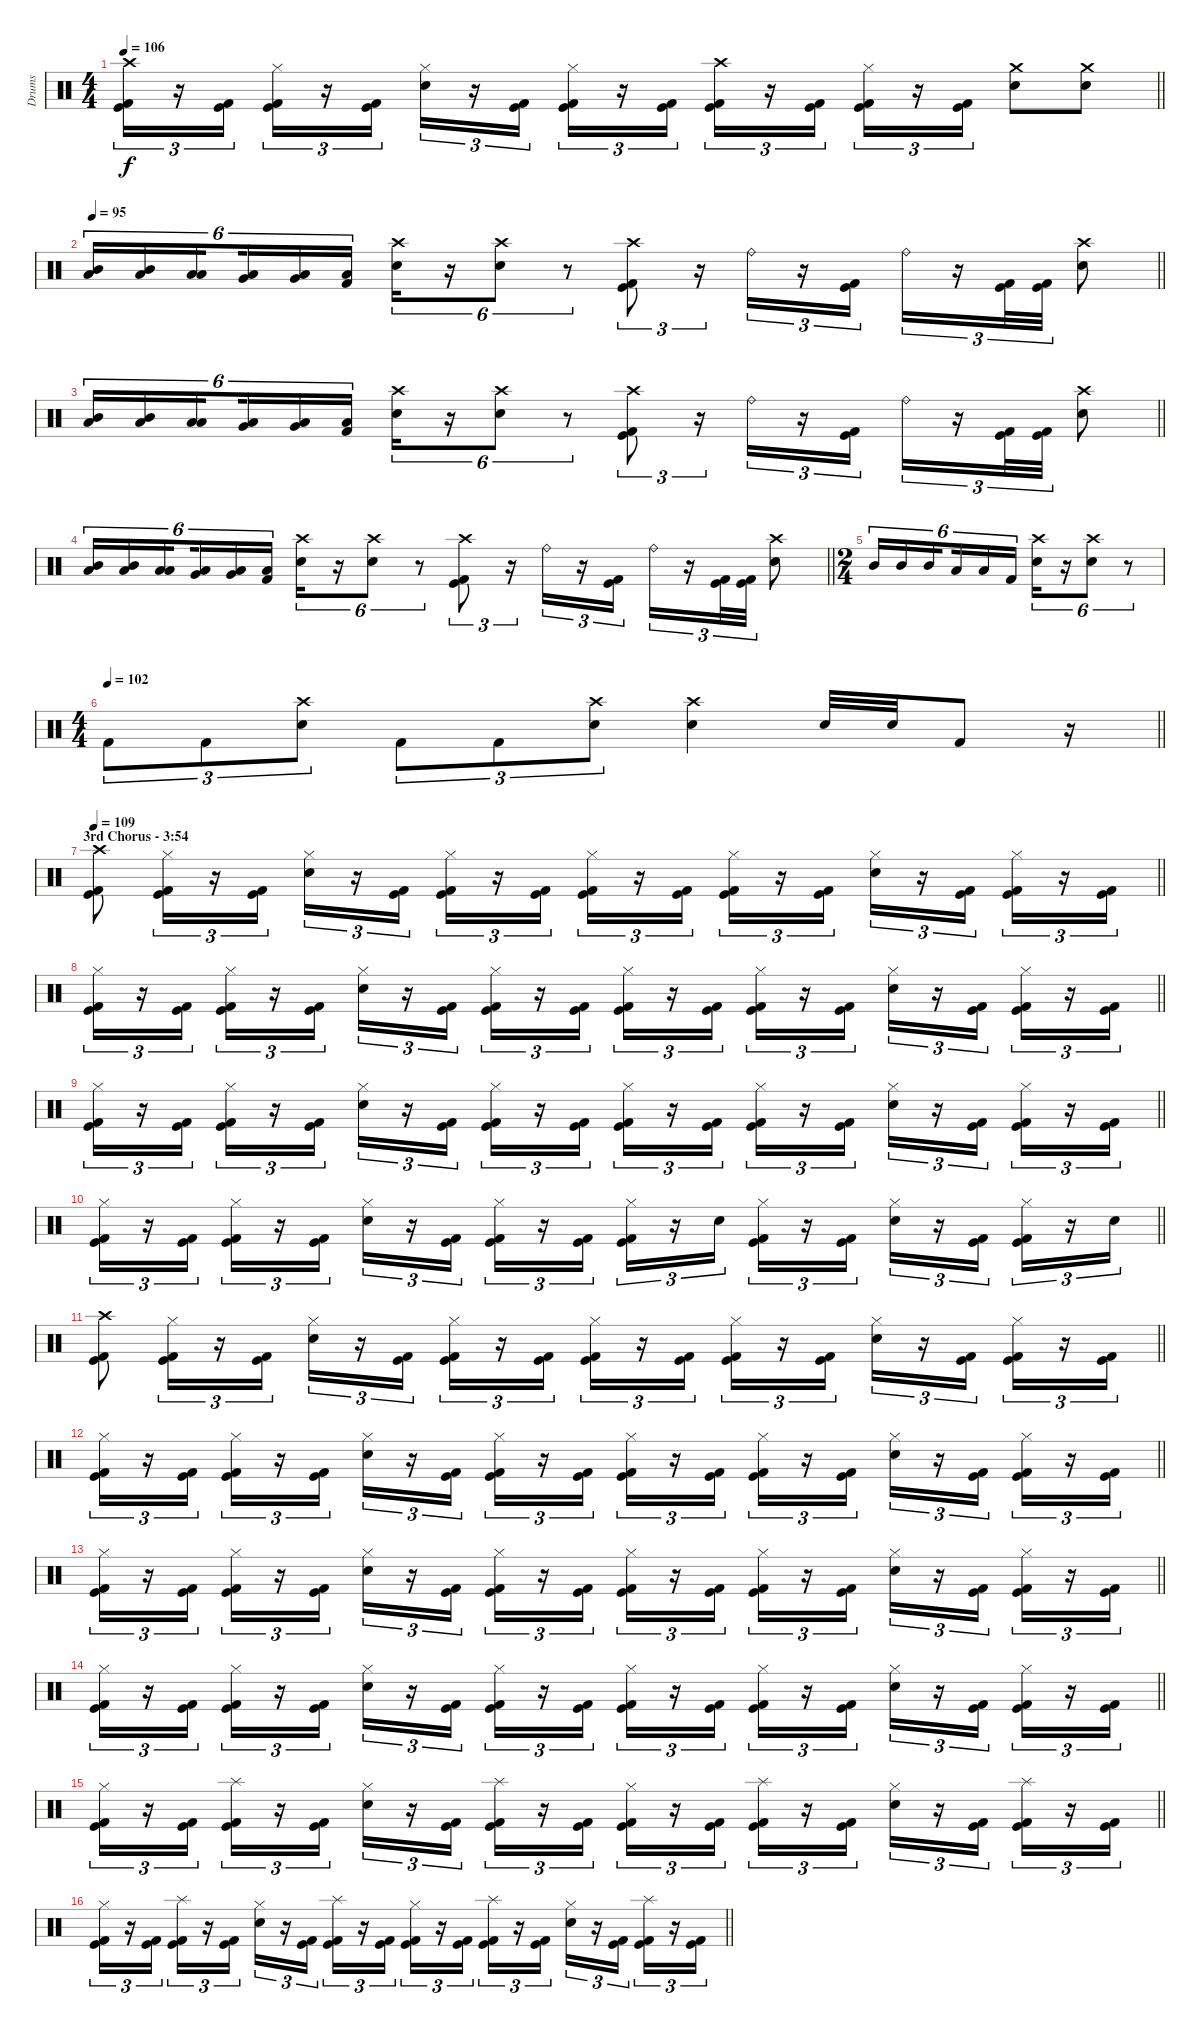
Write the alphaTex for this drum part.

\track ("Drums" "Drums") {instrument percussion}
\staff {score}
\articulation defaults
\ts (4 4)
\tempo 106
\clef neutral
\barLineRight lightlight
\ks c
("Crash high (hit)" "Kick (hit)" "Kick (hit) 2").16{tu (3 2) dy f} r.16{tu (3 2)} ("Kick (hit)" "Kick (hit) 2").16{tu (3 2)} ("Hi-Hat (closed)" "Kick (hit)" "Kick (hit) 2").16{tu (3 2)} r.16{tu (3 2)} ("Kick (hit)" "Kick (hit) 2").16{tu (3 2)} ("Hi-Hat (closed)" "Electric Snare (hit)").16{tu (3 2)} r.16{tu (3 2)} ("Kick (hit)" "Kick (hit) 2").16{tu (3 2)} ("Hi-Hat (closed)" "Kick (hit)" "Kick (hit) 2").16{tu (3 2)} r.16{tu (3 2)} ("Kick (hit)" "Kick (hit) 2").16{tu (3 2)} ("Crash high (hit)" "Kick (hit)" "Kick (hit) 2").16{tu (3 2)} r.16{tu (3 2)} ("Kick (hit)" "Kick (hit) 2").16{tu (3 2)} ("Hi-Hat (closed)" "Kick (hit)" "Kick (hit) 2").16{tu (3 2)} r.16{tu (3 2)} ("Kick (hit)" "Kick (hit) 2").16{tu (3 2)} ("Crash medium (hit)" "Electric Snare (hit)").8 ("Crash medium (hit)" "Electric Snare (hit)").8 |
\tempo 95
\barLineRight lightlight
("Mid Tom (hit)" "Low Tom (hit)").16{tu (6 4)} ("Mid Tom (hit)" "Low Tom (hit)").16{tu (6 4)} ("Low Tom (hit)" "Low Tom (hit)").16{tu (6 4) beam splitsecondary} ("Very Low Tom (hit)" "Low Tom (hit)").16{tu (6 4)} ("Very Low Tom (hit)" "Low Tom (hit)").16{tu (6 4)} ("Low Floor Tom (hit)" "Kick (hit) 2").16{tu (6 4)} ("Crash high (hit)" "Electric Snare (hit)").16{tu (6 4)} r.16{tu (6 4)} ("Crash high (hit)" "Electric Snare (hit)").8{tu (6 4)} r.8{tu (6 4)} ("Crash high (hit)" "Kick (hit)" "Kick (hit) 2").8{tu (3 2)} r.16{tu (3 2)} "Ride (bell)".16{tu (3 2)} r.16{tu (3 2)} ("Kick (hit)" "Kick (hit) 2").16{tu (3 2)} "Ride (bell)".16{tu (3 2)} r.16{tu (3 2)} ("Kick (hit)" "Kick (hit) 2").32{tu (3 2)} ("Kick (hit)" "Kick (hit) 2").32{tu (3 2)} ("Crash high (hit)" "Electric Snare (hit)").8 |
\barLineRight lightlight
("Mid Tom (hit)" "Low Tom (hit)").16{tu (6 4)} ("Mid Tom (hit)" "Low Tom (hit)").16{tu (6 4)} ("Low Tom (hit)" "Low Tom (hit)").16{tu (6 4) beam splitsecondary} ("Very Low Tom (hit)" "Low Tom (hit)").16{tu (6 4)} ("Very Low Tom (hit)" "Low Tom (hit)").16{tu (6 4)} ("Low Floor Tom (hit)" "Kick (hit) 2").16{tu (6 4)} ("Crash high (hit)" "Electric Snare (hit)").16{tu (6 4)} r.16{tu (6 4)} ("Crash high (hit)" "Electric Snare (hit)").8{tu (6 4)} r.8{tu (6 4)} ("Crash high (hit)" "Kick (hit)" "Kick (hit) 2").8{tu (3 2)} r.16{tu (3 2)} "Ride (bell)".16{tu (3 2)} r.16{tu (3 2)} ("Kick (hit)" "Kick (hit) 2").16{tu (3 2)} "Ride (bell)".16{tu (3 2)} r.16{tu (3 2)} ("Kick (hit)" "Kick (hit) 2").32{tu (3 2)} ("Kick (hit)" "Kick (hit) 2").32{tu (3 2)} ("Crash high (hit)" "Electric Snare (hit)").8 |
\barLineRight lightlight
("Mid Tom (hit)" "Low Tom (hit)").16{tu (6 4)} ("Mid Tom (hit)" "Low Tom (hit)").16{tu (6 4)} ("Low Tom (hit)" "Low Tom (hit)").16{tu (6 4) beam splitsecondary} ("Very Low Tom (hit)" "Low Tom (hit)").16{tu (6 4)} ("Very Low Tom (hit)" "Low Tom (hit)").16{tu (6 4)} ("Low Floor Tom (hit)" "Kick (hit) 2").16{tu (6 4)} ("Crash high (hit)" "Electric Snare (hit)").16{tu (6 4)} r.16{tu (6 4)} ("Crash high (hit)" "Electric Snare (hit)").8{tu (6 4)} r.8{tu (6 4)} ("Crash high (hit)" "Kick (hit)" "Kick (hit) 2").8{tu (3 2)} r.16{tu (3 2)} "Ride (bell)".16{tu (3 2)} r.16{tu (3 2)} ("Kick (hit)" "Kick (hit) 2").16{tu (3 2)} "Ride (bell)".16{tu (3 2)} r.16{tu (3 2)} ("Kick (hit)" "Kick (hit) 2").32{tu (3 2)} ("Kick (hit)" "Kick (hit) 2").32{tu (3 2)} ("Crash high (hit)" "Electric Snare (hit)").8 |
\ts (2 4)
"Mid Tom (hit)".16{tu (6 4)} "Mid Tom (hit)".16{tu (6 4)} "Mid Tom (hit)".16{tu (6 4) beam splitsecondary} "Low Tom (hit)".16{tu (6 4)} "Low Tom (hit)".16{tu (6 4)} "Kick (hit) 2".16{tu (6 4)} ("Crash high (hit)" "Electric Snare (hit)").16{tu (6 4)} r.16{tu (6 4)} ("Crash high (hit)" "Electric Snare (hit)").8{tu (6 4)} r.8{tu (6 4)} |
\ts (4 4)
\tempo 102
\barLineRight lightlight "Kick (hit) 2".8{tu (3 2)} "Kick (hit) 2".8{tu (3 2)}
("Crash high (hit)" "Electric Snare (hit)").8{tu (3 2)} "Kick (hit) 2".8{tu (3 2)} "Kick (hit) 2".8{tu (3 2)} ("Crash high (hit)" "Electric Snare (hit)").8{tu (3 2)} ("Crash high (hit)" "Electric Snare (hit)").4 "Electric Snare (hit)".32 "Electric Snare (hit)".32 "Kick (hit) 2".8 r.16 |
\section ("" "3rd Chorus - 3:54")
\tempo 109
\barLineRight lightlight
("Crash high (hit)" "Kick (hit)" "Kick (hit) 2").8 ("Hi-Hat (closed)" "Kick (hit)" "Kick (hit) 2").16{tu (3 2)} r.16{tu (3 2)} ("Kick (hit)" "Kick (hit) 2").16{tu (3 2)} ("Hi-Hat (closed)" "Electric Snare (hit)").16{tu (3 2)} r.16{tu (3 2)} ("Kick (hit)" "Kick (hit) 2").16{tu (3 2)} ("Hi-Hat (closed)" "Kick (hit)" "Kick (hit) 2").16{tu (3 2)} r.16{tu (3 2)} ("Kick (hit)" "Kick (hit) 2").16{tu (3 2)} ("Hi-Hat (closed)" "Kick (hit)" "Kick (hit) 2").16{tu (3 2)} r.16{tu (3 2)} ("Kick (hit)" "Kick (hit) 2").16{tu (3 2)} ("Hi-Hat (closed)" "Kick (hit)" "Kick (hit) 2").16{tu (3 2)} r.16{tu (3 2)} ("Kick (hit)" "Kick (hit) 2").16{tu (3 2)} ("Hi-Hat (closed)" "Electric Snare (hit)").16{tu (3 2)} r.16{tu (3 2)} ("Kick (hit)" "Kick (hit) 2").16{tu (3 2)} ("Hi-Hat (closed)" "Kick (hit)" "Kick (hit) 2").16{tu (3 2)} r.16{tu (3 2)} ("Kick (hit)" "Kick (hit) 2").16{tu (3 2)} |
\barLineRight lightlight
("Hi-Hat (closed)" "Kick (hit)" "Kick (hit) 2").16{tu (3 2)} r.16{tu (3 2)} ("Kick (hit)" "Kick (hit) 2").16{tu (3 2)} ("Hi-Hat (closed)" "Kick (hit)" "Kick (hit) 2").16{tu (3 2)} r.16{tu (3 2)} ("Kick (hit)" "Kick (hit) 2").16{tu (3 2)} ("Hi-Hat (closed)" "Electric Snare (hit)").16{tu (3 2)} r.16{tu (3 2)} ("Kick (hit)" "Kick (hit) 2").16{tu (3 2)} ("Hi-Hat (closed)" "Kick (hit)" "Kick (hit) 2").16{tu (3 2)} r.16{tu (3 2)} ("Kick (hit)" "Kick (hit) 2").16{tu (3 2)} ("Hi-Hat (closed)" "Kick (hit)" "Kick (hit) 2").16{tu (3 2)} r.16{tu (3 2)} ("Kick (hit)" "Kick (hit) 2").16{tu (3 2)} ("Hi-Hat (closed)" "Kick (hit)" "Kick (hit) 2").16{tu (3 2)} r.16{tu (3 2)} ("Kick (hit)" "Kick (hit) 2").16{tu (3 2)} ("Hi-Hat (closed)" "Electric Snare (hit)").16{tu (3 2)} r.16{tu (3 2)} ("Kick (hit)" "Kick (hit) 2").16{tu (3 2)} ("Hi-Hat (closed)" "Kick (hit)" "Kick (hit) 2").16{tu (3 2)} r.16{tu (3 2)} ("Kick (hit)" "Kick (hit) 2").16{tu (3 2)} |
\barLineRight lightlight
("Hi-Hat (closed)" "Kick (hit)" "Kick (hit) 2").16{tu (3 2)} r.16{tu (3 2)} ("Kick (hit)" "Kick (hit) 2").16{tu (3 2)} ("Hi-Hat (closed)" "Kick (hit)" "Kick (hit) 2").16{tu (3 2)} r.16{tu (3 2)} ("Kick (hit)" "Kick (hit) 2").16{tu (3 2)} ("Hi-Hat (closed)" "Electric Snare (hit)").16{tu (3 2)} r.16{tu (3 2)} ("Kick (hit)" "Kick (hit) 2").16{tu (3 2)} ("Hi-Hat (closed)" "Kick (hit)" "Kick (hit) 2").16{tu (3 2)} r.16{tu (3 2)} ("Kick (hit)" "Kick (hit) 2").16{tu (3 2)} ("Hi-Hat (closed)" "Kick (hit)" "Kick (hit) 2").16{tu (3 2)} r.16{tu (3 2)} ("Kick (hit)" "Kick (hit) 2").16{tu (3 2)} ("Hi-Hat (closed)" "Kick (hit)" "Kick (hit) 2").16{tu (3 2)} r.16{tu (3 2)} ("Kick (hit)" "Kick (hit) 2").16{tu (3 2)} ("Hi-Hat (closed)" "Electric Snare (hit)").16{tu (3 2)} r.16{tu (3 2)} ("Kick (hit)" "Kick (hit) 2").16{tu (3 2)} ("Hi-Hat (closed)" "Kick (hit)" "Kick (hit) 2").16{tu (3 2)} r.16{tu (3 2)} ("Kick (hit)" "Kick (hit) 2").16{tu (3 2)} |
\barLineRight lightlight
("Hi-Hat (closed)" "Kick (hit)" "Kick (hit) 2").16{tu (3 2)} r.16{tu (3 2)} ("Kick (hit)" "Kick (hit) 2").16{tu (3 2)} ("Hi-Hat (closed)" "Kick (hit)" "Kick (hit) 2").16{tu (3 2)} r.16{tu (3 2)} ("Kick (hit)" "Kick (hit) 2").16{tu (3 2)} ("Hi-Hat (closed)" "Electric Snare (hit)").16{tu (3 2)} r.16{tu (3 2)} ("Kick (hit)" "Kick (hit) 2").16{tu (3 2)} ("Hi-Hat (closed)" "Kick (hit)" "Kick (hit) 2").16{tu (3 2)} r.16{tu (3 2)} ("Kick (hit)" "Kick (hit) 2").16{tu (3 2)} ("Hi-Hat (closed)" "Kick (hit)" "Kick (hit) 2").16{tu (3 2)} r.16{tu (3 2)} "Electric Snare (hit)".16{tu (3 2)} ("Hi-Hat (closed)" "Kick (hit)" "Kick (hit) 2").16{tu (3 2)} r.16{tu (3 2)} ("Kick (hit)" "Kick (hit) 2").16{tu (3 2)} ("Hi-Hat (closed)" "Electric Snare (hit)").16{tu (3 2)} r.16{tu (3 2)} ("Kick (hit)" "Kick (hit) 2").16{tu (3 2)} ("Hi-Hat (closed)" "Kick (hit)" "Kick (hit) 2").16{tu (3 2)} r.16{tu (3 2)} "Electric Snare (hit)".16{tu (3 2)} |
\barLineRight lightlight
("Crash high (hit)" "Kick (hit)" "Kick (hit) 2").8 ("Hi-Hat (closed)" "Kick (hit)" "Kick (hit) 2").16{tu (3 2)} r.16{tu (3 2)} ("Kick (hit)" "Kick (hit) 2").16{tu (3 2)} ("Hi-Hat (closed)" "Electric Snare (hit)").16{tu (3 2)} r.16{tu (3 2)} ("Kick (hit)" "Kick (hit) 2").16{tu (3 2)} ("Hi-Hat (closed)" "Kick (hit)" "Kick (hit) 2").16{tu (3 2)} r.16{tu (3 2)} ("Kick (hit)" "Kick (hit) 2").16{tu (3 2)} ("Hi-Hat (closed)" "Kick (hit)" "Kick (hit) 2").16{tu (3 2)} r.16{tu (3 2)} ("Kick (hit)" "Kick (hit) 2").16{tu (3 2)} ("Hi-Hat (closed)" "Kick (hit)" "Kick (hit) 2").16{tu (3 2)} r.16{tu (3 2)} ("Kick (hit)" "Kick (hit) 2").16{tu (3 2)} ("Hi-Hat (closed)" "Electric Snare (hit)").16{tu (3 2)} r.16{tu (3 2)} ("Kick (hit)" "Kick (hit) 2").16{tu (3 2)} ("Hi-Hat (closed)" "Kick (hit)" "Kick (hit) 2").16{tu (3 2)} r.16{tu (3 2)} ("Kick (hit)" "Kick (hit) 2").16{tu (3 2)} |
\barLineRight lightlight
("Hi-Hat (closed)" "Kick (hit)" "Kick (hit) 2").16{tu (3 2)} r.16{tu (3 2)} ("Kick (hit)" "Kick (hit) 2").16{tu (3 2)} ("Hi-Hat (closed)" "Kick (hit)" "Kick (hit) 2").16{tu (3 2)} r.16{tu (3 2)} ("Kick (hit)" "Kick (hit) 2").16{tu (3 2)} ("Hi-Hat (closed)" "Electric Snare (hit)").16{tu (3 2)} r.16{tu (3 2)} ("Kick (hit)" "Kick (hit) 2").16{tu (3 2)} ("Hi-Hat (closed)" "Kick (hit)" "Kick (hit) 2").16{tu (3 2)} r.16{tu (3 2)} ("Kick (hit)" "Kick (hit) 2").16{tu (3 2)} ("Hi-Hat (closed)" "Kick (hit)" "Kick (hit) 2").16{tu (3 2)} r.16{tu (3 2)} ("Kick (hit)" "Kick (hit) 2").16{tu (3 2)} ("Hi-Hat (closed)" "Kick (hit)" "Kick (hit) 2").16{tu (3 2)} r.16{tu (3 2)} ("Kick (hit)" "Kick (hit) 2").16{tu (3 2)} ("Hi-Hat (closed)" "Electric Snare (hit)").16{tu (3 2)} r.16{tu (3 2)} ("Kick (hit)" "Kick (hit) 2").16{tu (3 2)} ("Hi-Hat (closed)" "Kick (hit)" "Kick (hit) 2").16{tu (3 2)} r.16{tu (3 2)} ("Kick (hit)" "Kick (hit) 2").16{tu (3 2)} |
\barLineRight lightlight
("Hi-Hat (closed)" "Kick (hit)" "Kick (hit) 2").16{tu (3 2)} r.16{tu (3 2)} ("Kick (hit)" "Kick (hit) 2").16{tu (3 2)} ("Hi-Hat (closed)" "Kick (hit)" "Kick (hit) 2").16{tu (3 2)} r.16{tu (3 2)} ("Kick (hit)" "Kick (hit) 2").16{tu (3 2)} ("Hi-Hat (closed)" "Electric Snare (hit)").16{tu (3 2)} r.16{tu (3 2)} ("Kick (hit)" "Kick (hit) 2").16{tu (3 2)} ("Hi-Hat (closed)" "Kick (hit)" "Kick (hit) 2").16{tu (3 2)} r.16{tu (3 2)} ("Kick (hit)" "Kick (hit) 2").16{tu (3 2)} ("Hi-Hat (closed)" "Kick (hit)" "Kick (hit) 2").16{tu (3 2)} r.16{tu (3 2)} ("Kick (hit)" "Kick (hit) 2").16{tu (3 2)} ("Hi-Hat (closed)" "Kick (hit)" "Kick (hit) 2").16{tu (3 2)} r.16{tu (3 2)} ("Kick (hit)" "Kick (hit) 2").16{tu (3 2)} ("Hi-Hat (closed)" "Electric Snare (hit)").16{tu (3 2)} r.16{tu (3 2)} ("Kick (hit)" "Kick (hit) 2").16{tu (3 2)} ("Hi-Hat (closed)" "Kick (hit)" "Kick (hit) 2").16{tu (3 2)} r.16{tu (3 2)} ("Kick (hit)" "Kick (hit) 2").16{tu (3 2)} |
\barLineRight lightlight
("Hi-Hat (closed)" "Kick (hit)" "Kick (hit) 2").16{tu (3 2)} r.16{tu (3 2)} ("Kick (hit)" "Kick (hit) 2").16{tu (3 2)} ("Hi-Hat (closed)" "Kick (hit)" "Kick (hit) 2").16{tu (3 2)} r.16{tu (3 2)} ("Kick (hit)" "Kick (hit) 2").16{tu (3 2)} ("Hi-Hat (closed)" "Electric Snare (hit)").16{tu (3 2)} r.16{tu (3 2)} ("Kick (hit)" "Kick (hit) 2").16{tu (3 2)} ("Hi-Hat (closed)" "Kick (hit)" "Kick (hit) 2").16{tu (3 2)} r.16{tu (3 2)} ("Kick (hit)" "Kick (hit) 2").16{tu (3 2)} ("Hi-Hat (closed)" "Kick (hit)" "Kick (hit) 2").16{tu (3 2)} r.16{tu (3 2)} ("Kick (hit)" "Kick (hit) 2").16{tu (3 2)} ("Hi-Hat (closed)" "Kick (hit)" "Kick (hit) 2").16{tu (3 2)} r.16{tu (3 2)} ("Kick (hit)" "Kick (hit) 2").16{tu (3 2)} ("Hi-Hat (closed)" "Electric Snare (hit)").16{tu (3 2)} r.16{tu (3 2)} ("Kick (hit)" "Kick (hit) 2").16{tu (3 2)} ("Hi-Hat (closed)" "Kick (hit)" "Kick (hit) 2").16{tu (3 2)} r.16{tu (3 2)} ("Kick (hit)" "Kick (hit) 2").16{tu (3 2)} |
\barLineRight lightlight
("Hi-Hat (closed)" "Kick (hit)" "Kick (hit) 2").16{tu (3 2)} r.16{tu (3 2)} ("Kick (hit)" "Kick (hit) 2").16{tu (3 2)} ("Splash (hit)" "Kick (hit)" "Kick (hit) 2").16{tu (3 2)} r.16{tu (3 2)} ("Kick (hit)" "Kick (hit) 2").16{tu (3 2)} ("Hi-Hat (closed)" "Electric Snare (hit)").16{tu (3 2)} r.16{tu (3 2)} ("Kick (hit)" "Kick (hit) 2").16{tu (3 2)} ("Splash (hit)" "Kick (hit)" "Kick (hit) 2").16{tu (3 2)} r.16{tu (3 2)} ("Kick (hit)" "Kick (hit) 2").16{tu (3 2)} ("Hi-Hat (closed)" "Kick (hit)" "Kick (hit) 2").16{tu (3 2)} r.16{tu (3 2)} ("Kick (hit)" "Kick (hit) 2").16{tu (3 2)} ("Splash (hit)" "Kick (hit)" "Kick (hit) 2").16{tu (3 2)} r.16{tu (3 2)} ("Kick (hit)" "Kick (hit) 2").16{tu (3 2)} ("Hi-Hat (closed)" "Electric Snare (hit)").16{tu (3 2)} r.16{tu (3 2)} ("Kick (hit)" "Kick (hit) 2").16{tu (3 2)} ("Splash (hit)" "Kick (hit)" "Kick (hit) 2").16{tu (3 2)} r.16{tu (3 2)} ("Kick (hit)" "Kick (hit) 2").16{tu (3 2)} |
\barLineRight lightlight
("Hi-Hat (closed)" "Kick (hit)" "Kick (hit) 2").16{tu (3 2)} r.16{tu (3 2)} ("Kick (hit)" "Kick (hit) 2").16{tu (3 2)} ("Splash (hit)" "Kick (hit)" "Kick (hit) 2").16{tu (3 2)} r.16{tu (3 2)} ("Kick (hit)" "Kick (hit) 2").16{tu (3 2)} ("Hi-Hat (closed)" "Electric Snare (hit)").16{tu (3 2)} r.16{tu (3 2)} ("Kick (hit)" "Kick (hit) 2").16{tu (3 2)} ("Splash (hit)" "Kick (hit)" "Kick (hit) 2").16{tu (3 2)} r.16{tu (3 2)} ("Kick (hit)" "Kick (hit) 2").16{tu (3 2)} ("Hi-Hat (closed)" "Kick (hit)" "Kick (hit) 2").16{tu (3 2)} r.16{tu (3 2)} ("Kick (hit)" "Kick (hit) 2").16{tu (3 2)} ("Splash (hit)" "Kick (hit)" "Kick (hit) 2").16{tu (3 2)} r.16{tu (3 2)} ("Kick (hit)" "Kick (hit) 2").16{tu (3 2)} ("Hi-Hat (closed)" "Electric Snare (hit)").16{tu (3 2)} r.16{tu (3 2)} ("Kick (hit)" "Kick (hit) 2").16{tu (3 2)} ("Splash (hit)" "Kick (hit)" "Kick (hit) 2").16{tu (3 2)} r.16{tu (3 2)} ("Kick (hit)" "Kick (hit) 2").16{tu (3 2)}
